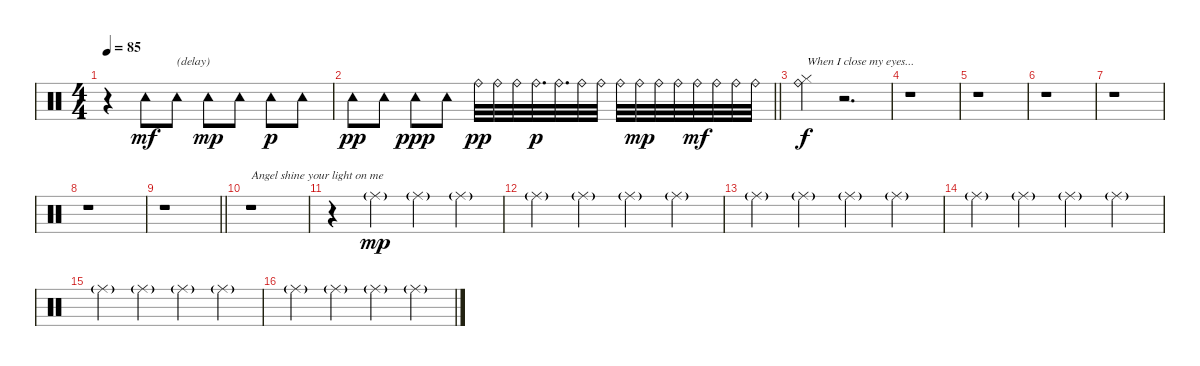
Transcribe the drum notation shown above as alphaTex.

\track "" {instrument percussion}
\staff {score}
\articulation defaults
\ts (4 4)
\tempo 85
\clef neutral
\ks c
r.4{dy ppp} "Tambourine (hit)".8{dy mf} "Tambourine (hit)".8{txt "(delay)"} "Tambourine (hit)".8{dy mp} "Tambourine (hit)".8 "Tambourine (hit)".8{dy p} "Tambourine (hit)".8 |
\barLineRight lightlight "Tambourine (hit)".8{dy pp} "Tambourine (hit)".8 "Tambourine (hit)".8{dy ppp} "Tambourine (hit)".8 "Ride (bell)".32{dy pp} "Ride (bell)".32 "Ride (bell)".32 "Ride (bell)".32{d dy p} "Ride (bell)".32{d} "Ride (bell)".32 "Ride (bell)".32 "Ride (bell)".32 "Ride (bell)".32{dy mp} "Ride (bell)".32 "Ride (bell)".32 "Ride (bell)".32{dy mf} "Ride (bell)".32 "Ride (bell)".32 "Ride (bell)".32
|
("Ride (bell)" "Hi-Hat (closed)").4{txt "When I close my eyes..." dy f} r.2{d} |
r.1 |
r.1 |
r.1 |
r.1 |
r.1 |
\barLineRight lightlight
r.1 |
r.1{txt "Angel shine your light on me"} |
r.4 "Ride (middle)"{g}.4{dy mp} "Ride (middle)"{g}.4 "Ride (middle)"{g}.4 |
"Ride (middle)"{g}.4 "Ride (middle)"{g}.4 "Ride (middle)"{g}.4 "Ride (middle)"{g}.4 |
"Ride (middle)"{g}.4 "Ride (middle)"{g}.4 "Ride (middle)"{g}.4 "Ride (middle)"{g}.4 |
"Ride (middle)"{g}.4 "Ride (middle)"{g}.4 "Ride (middle)"{g}.4 "Ride (middle)"{g}.4 |
"Ride (middle)"{g}.4 "Ride (middle)"{g}.4 "Ride (middle)"{g}.4 "Ride (middle)"{g}.4 |
"Ride (middle)"{g}.4 "Ride (middle)"{g}.4 "Ride (middle)"{g}.4 "Ride (middle)"{g}.4
